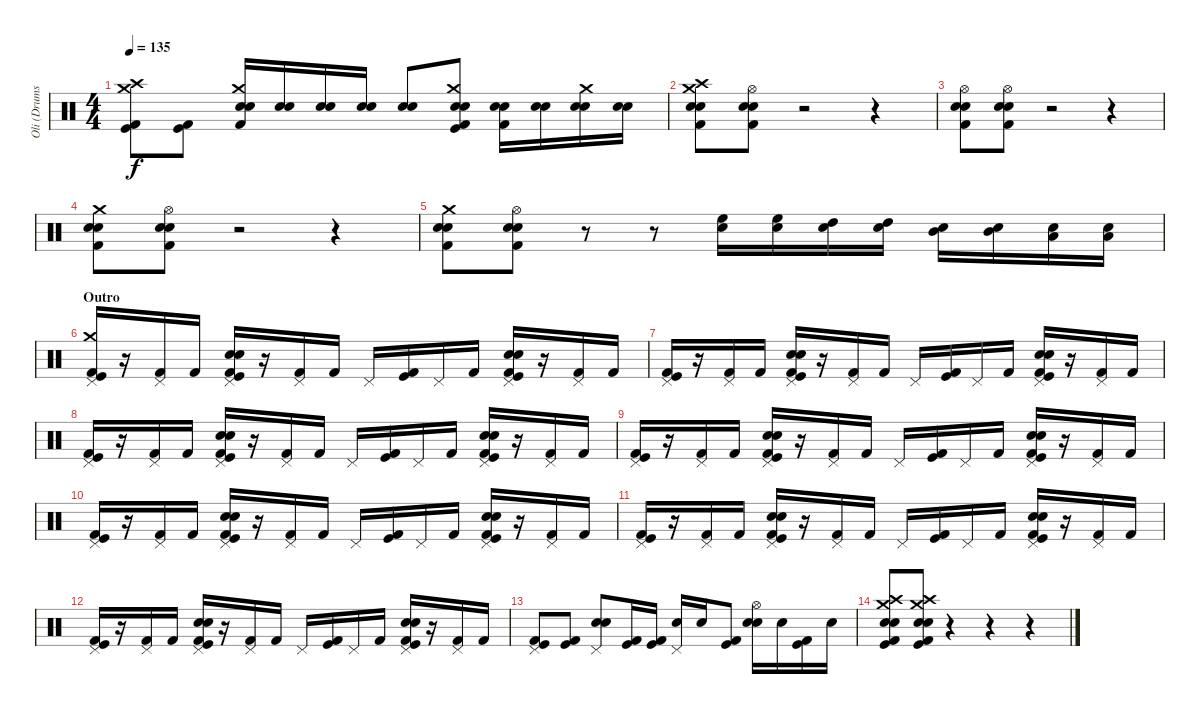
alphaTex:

\track ("Oli (Drums)" "Oli (Drums") {instrument percussion}
\staff {score}
\articulation defaults
\ts (4 4)
\tempo 135
\clef neutral
\ks c
("Kick (hit) 2" "Kick (hit)" "Crash medium (hit)" "Crash high (hit)").8{dy f} ("Kick (hit) 2" "Kick (hit)").8 ("Kick (hit) 2" "Electric Snare (hit)" "Snare (hit) 2" "Crash medium (hit)").16 ("Electric Snare (hit)" "Snare (hit) 2").16 ("Electric Snare (hit)" "Snare (hit) 2").16 ("Electric Snare (hit)" "Snare (hit) 2").16 ("Electric Snare (hit)" "Snare (hit) 2").8 ("Kick (hit) 2" "Kick (hit)" "Electric Snare (hit)" "Snare (hit) 2" "Crash medium (hit)").8 ("Kick (hit) 2" "Electric Snare (hit)" "Snare (hit) 2").16 ("Electric Snare (hit)" "Snare (hit) 2").16 ("Electric Snare (hit)" "Snare (hit) 2" "Crash medium (hit)").16 ("Electric Snare (hit)" "Snare (hit) 2").16 |
("Kick (hit) 2" "Crash medium (hit)" "Electric Snare (hit)" "Snare (hit) 2" "Crash high (hit)").8 ("Kick (hit) 2" "Hi-Hat (open)" "Electric Snare (hit)" "Snare (hit) 2").8 r.2 r.4 |
("Kick (hit) 2" "Hi-Hat (open)" "Electric Snare (hit)" "Snare (hit) 2").8 ("Kick (hit) 2" "Hi-Hat (open)" "Electric Snare (hit)" "Snare (hit) 2").8 r.2 r.4 |
("Kick (hit) 2" "Crash medium (hit)" "Electric Snare (hit)" "Snare (hit) 2").8 ("Kick (hit) 2" "Hi-Hat (open)" "Electric Snare (hit)" "Snare (hit) 2").8 r.2 r.4 |
("Kick (hit) 2" "Crash medium (hit)" "Electric Snare (hit)" "Snare (hit) 2").8 ("Kick (hit) 2" "Hi-Hat (open)" "Electric Snare (hit)" "Snare (hit) 2").8 r.8 r.8 ("Electric Snare (hit)" "High Floor Tom (hit)").16 ("Electric Snare (hit)" "High Floor Tom (hit)").16 ("Electric Snare (hit)" "High Tom (hit)").16 ("Electric Snare (hit)" "High Tom (hit)").16 ("Electric Snare (hit)" "Mid Tom (hit)").16 ("Electric Snare (hit)" "Mid Tom (hit)").16 ("Electric Snare (hit)" "Low Tom (hit)").16 ("Electric Snare (hit)" "Low Tom (hit)").16 |
\section ("" "Outro")
("Kick (hit) 2" "Kick (hit)" "Pedal Hi-Hat (hit)" "Crash medium (hit)").16 r.16 ("Kick (hit) 2" "Pedal Hi-Hat (hit)").16 "Kick (hit) 2".16 ("Kick (hit) 2" "Snare (hit) 2" "Pedal Hi-Hat (hit)" "Electric Snare (hit)" "Kick (hit)").16 r.16 ("Kick (hit) 2" "Pedal Hi-Hat (hit)").16 "Kick (hit) 2".16 "Pedal Hi-Hat (hit)".16 ("Kick (hit)" "Kick (hit) 2").16 "Pedal Hi-Hat (hit)".16 "Kick (hit) 2".16 ("Kick (hit) 2" "Snare (hit) 2" "Pedal Hi-Hat (hit)" "Electric Snare (hit)" "Kick (hit)").16 r.16 ("Kick (hit) 2" "Pedal Hi-Hat (hit)").16 "Kick (hit) 2".16 |
("Kick (hit) 2" "Kick (hit)" "Pedal Hi-Hat (hit)").16 r.16 ("Kick (hit) 2" "Pedal Hi-Hat (hit)").16 "Kick (hit) 2".16 ("Kick (hit) 2" "Snare (hit) 2" "Pedal Hi-Hat (hit)" "Electric Snare (hit)" "Kick (hit)").16 r.16 ("Kick (hit) 2" "Pedal Hi-Hat (hit)").16 "Kick (hit) 2".16 "Pedal Hi-Hat (hit)".16 ("Kick (hit)" "Kick (hit) 2").16 "Pedal Hi-Hat (hit)".16 "Kick (hit) 2".16 ("Kick (hit) 2" "Snare (hit) 2" "Pedal Hi-Hat (hit)" "Electric Snare (hit)" "Kick (hit)").16 r.16 ("Kick (hit) 2" "Pedal Hi-Hat (hit)").16 "Kick (hit) 2".16 |
("Kick (hit) 2" "Kick (hit)" "Pedal Hi-Hat (hit)").16 r.16 ("Kick (hit) 2" "Pedal Hi-Hat (hit)").16 "Kick (hit) 2".16 ("Kick (hit) 2" "Snare (hit) 2" "Pedal Hi-Hat (hit)" "Electric Snare (hit)" "Kick (hit)").16 r.16 ("Kick (hit) 2" "Pedal Hi-Hat (hit)").16 "Kick (hit) 2".16 "Pedal Hi-Hat (hit)".16 ("Kick (hit)" "Kick (hit) 2").16 "Pedal Hi-Hat (hit)".16 "Kick (hit) 2".16 ("Kick (hit) 2" "Snare (hit) 2" "Pedal Hi-Hat (hit)" "Electric Snare (hit)" "Kick (hit)").16 r.16 ("Kick (hit) 2" "Pedal Hi-Hat (hit)").16 "Kick (hit) 2".16 |
("Kick (hit) 2" "Kick (hit)" "Pedal Hi-Hat (hit)").16 r.16 ("Kick (hit) 2" "Pedal Hi-Hat (hit)").16 "Kick (hit) 2".16 ("Kick (hit) 2" "Snare (hit) 2" "Pedal Hi-Hat (hit)" "Electric Snare (hit)" "Kick (hit)").16 r.16 ("Kick (hit) 2" "Pedal Hi-Hat (hit)").16 "Kick (hit) 2".16 "Pedal Hi-Hat (hit)".16 ("Kick (hit)" "Kick (hit) 2").16 "Pedal Hi-Hat (hit)".16 "Kick (hit) 2".16 ("Kick (hit) 2" "Snare (hit) 2" "Pedal Hi-Hat (hit)" "Electric Snare (hit)" "Kick (hit)").16 r.16 ("Kick (hit) 2" "Pedal Hi-Hat (hit)").16 "Kick (hit) 2".16 |
("Kick (hit) 2" "Kick (hit)" "Pedal Hi-Hat (hit)").16 r.16 ("Kick (hit) 2" "Pedal Hi-Hat (hit)").16 "Kick (hit) 2".16 ("Kick (hit) 2" "Snare (hit) 2" "Pedal Hi-Hat (hit)" "Electric Snare (hit)" "Kick (hit)").16 r.16 ("Kick (hit) 2" "Pedal Hi-Hat (hit)").16 "Kick (hit) 2".16 "Pedal Hi-Hat (hit)".16 ("Kick (hit)" "Kick (hit) 2").16 "Pedal Hi-Hat (hit)".16 "Kick (hit) 2".16 ("Kick (hit) 2" "Snare (hit) 2" "Pedal Hi-Hat (hit)" "Electric Snare (hit)" "Kick (hit)").16 r.16 ("Kick (hit) 2" "Pedal Hi-Hat (hit)").16 "Kick (hit) 2".16 |
("Kick (hit) 2" "Kick (hit)" "Pedal Hi-Hat (hit)").16 r.16 ("Kick (hit) 2" "Pedal Hi-Hat (hit)").16 "Kick (hit) 2".16 ("Kick (hit) 2" "Snare (hit) 2" "Pedal Hi-Hat (hit)" "Electric Snare (hit)" "Kick (hit)").16 r.16 ("Kick (hit) 2" "Pedal Hi-Hat (hit)").16 "Kick (hit) 2".16 "Pedal Hi-Hat (hit)".16 ("Kick (hit)" "Kick (hit) 2").16 "Pedal Hi-Hat (hit)".16 "Kick (hit) 2".16 ("Kick (hit) 2" "Snare (hit) 2" "Pedal Hi-Hat (hit)" "Electric Snare (hit)" "Kick (hit)").16 r.16 ("Kick (hit) 2" "Pedal Hi-Hat (hit)").16 "Kick (hit) 2".16 |
("Kick (hit) 2" "Kick (hit)" "Pedal Hi-Hat (hit)").16 r.16 ("Kick (hit) 2" "Pedal Hi-Hat (hit)").16 "Kick (hit) 2".16 ("Kick (hit) 2" "Snare (hit) 2" "Pedal Hi-Hat (hit)" "Electric Snare (hit)" "Kick (hit)").16 r.16 ("Kick (hit) 2" "Pedal Hi-Hat (hit)").16 "Kick (hit) 2".16 "Pedal Hi-Hat (hit)".16 ("Kick (hit)" "Kick (hit) 2").16 "Pedal Hi-Hat (hit)".16 "Kick (hit) 2".16 ("Kick (hit) 2" "Snare (hit) 2" "Pedal Hi-Hat (hit)" "Electric Snare (hit)" "Kick (hit)").16 r.16 ("Kick (hit) 2" "Pedal Hi-Hat (hit)").16 "Kick (hit) 2".16 |
("Kick (hit) 2" "Kick (hit)" "Pedal Hi-Hat (hit)").8 ("Kick (hit) 2" "Kick (hit)").8 ("Snare (hit) 2" "Electric Snare (hit)" "Pedal Hi-Hat (hit)").8 ("Kick (hit) 2" "Kick (hit)").16 ("Kick (hit) 2" "Kick (hit)").16 ("Snare (hit) 2" "Pedal Hi-Hat (hit)").16 "Snare (hit) 2".16 ("Kick (hit) 2" "Kick (hit)").8 ("Snare (hit) 2" "Electric Snare (hit)" "Hi-Hat (open)").16 "Snare (hit) 2".16 ("Kick (hit)" "Kick (hit) 2").16 "Snare (hit) 2".16 |
("Kick (hit) 2" "Kick (hit)" "Crash high (hit)" "Crash medium (hit)" "Electric Snare (hit)" "Snare (hit) 2").8 ("Kick (hit) 2" "Kick (hit)" "Crash high (hit)" "Crash medium (hit)" "Electric Snare (hit)" "Snare (hit) 2").8 r.4 r.4 r.4
